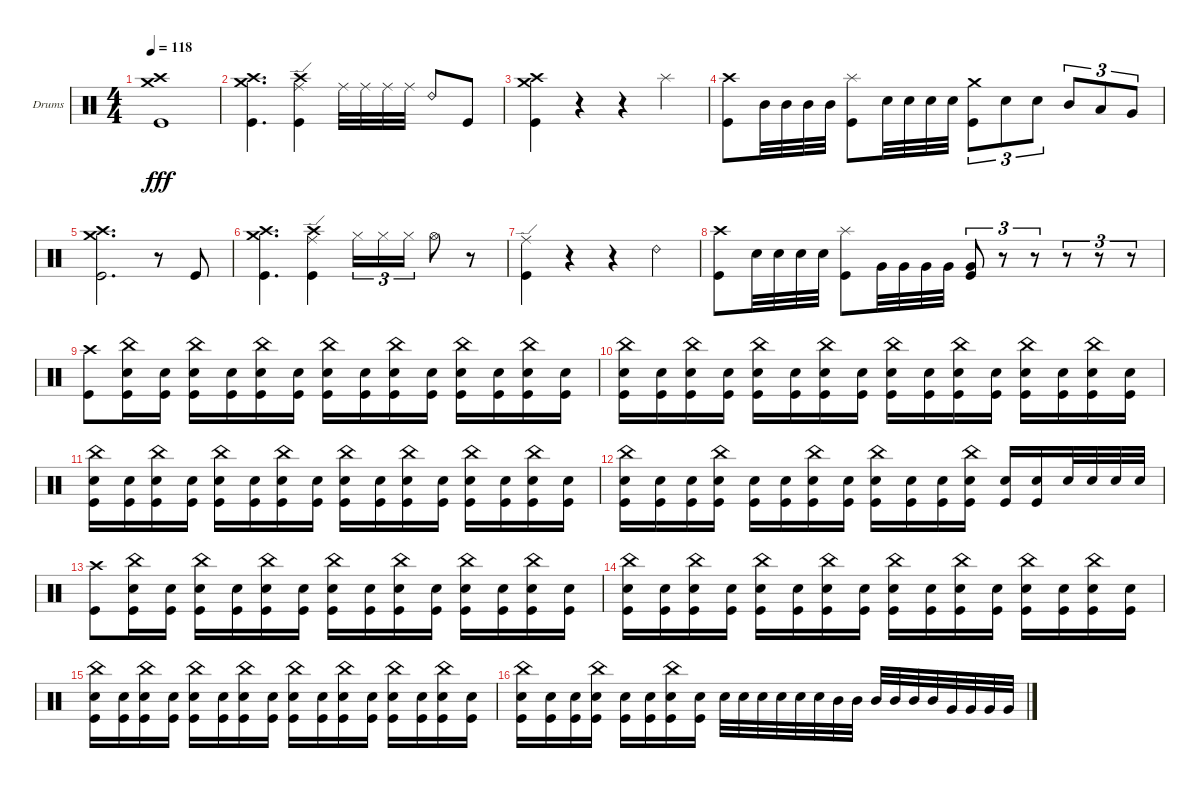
\bracketExtendMode groupsimilarinstruments
\firstSystemTrackNameOrientation horizontal
\otherSystemsTrackNameOrientation horizontal
\track ("Drumkit" "Drums") {instrument percussion}
\staff {score}
\articulation defaults
\ts (4 4)
\tempo 118
\clef neutral
\ks c
("Kick (hit)" "Crash medium (hit)" "Crash high (hit)").1{dy fff} |
("Kick (hit)" "Crash medium (hit)" "Crash high (hit)").4{d} ("Kick (hit)" "Crash high (hit)" "Ride (edge)").4 "Ride (middle)".32 "Ride (middle)".32 "Ride (middle)".32 "Ride (middle)".32 "Ride (bell) 2".8 "Kick (hit)".8 |
("Kick (hit)" "Crash medium (hit)" "Crash high (hit)").4 r.4 r.4 "Splash (hit)".4 |
("Kick (hit)" "Crash high (hit)").8 "Mid Tom (hit)".32 "Mid Tom (hit)".32 "Mid Tom (hit)".32 "Mid Tom (hit)".32 ("Kick (hit)" "Splash (hit)").8 "Snare (hit) 2".32 "Snare (hit) 2".32 "Snare (hit) 2".32 "Snare (hit) 2".32 ("Kick (hit)" "Crash medium (hit)").8{tu (3 2)} "Snare (hit) 2".8{tu (3 2)} "Snare (hit) 2".8{tu (3 2)} "Mid Tom (hit)".8{tu (3 2)} "Low Tom (hit)".8{tu (3 2)} "Very Low Tom (hit)".8{tu (3 2)} |
("Kick (hit)" "Crash medium (hit)" "Crash high (hit)").2{d} r.8 "Kick (hit)".8 |
("Kick (hit)" "Crash medium (hit)" "Crash high (hit)").4{d} ("Kick (hit)" "Crash high (hit)" "Ride (edge)").4 "Hi-Hat (closed)".16{tu (3 2)} "Hi-Hat (closed)".16{tu (3 2)} "Hi-Hat (closed)".16{tu (3 2)} "Hi-Hat (open)".8 r.8 |
("Kick (hit)" "Ride (edge)").4 r.4 r.4 "Ride (bell) 2".4 |
("Kick (hit)" "Crash high (hit)").8 "Snare (hit) 2".32 "Snare (hit) 2".32 "Snare (hit) 2".32 "Snare (hit) 2".32 ("Kick (hit)" "Splash (hit)").8 "Very Low Tom (hit)".32 "Very Low Tom (hit)".32 "Very Low Tom (hit)".32 "Very Low Tom (hit)".32 ("Kick (hit)" "Very Low Tom (hit)").8{tu (3 2)} r.8{tu (3 2)} r.8{tu (3 2)} r.8{tu (3 2)} r.8{tu (3 2)} r.8{tu (3 2)} |
("Kick (hit)" "Crash high (hit)").8 ("Snare (hit) 2" "Kick (hit)" "China (hit)").16 ("Snare (hit) 2" "Kick (hit)").16 ("Snare (hit) 2" "Kick (hit)" "China (hit)").16 ("Snare (hit) 2" "Kick (hit)").16 ("Snare (hit) 2" "Kick (hit)" "China (hit)").16 ("Snare (hit) 2" "Kick (hit)").16 ("Snare (hit) 2" "Kick (hit)" "China (hit)").16 ("Snare (hit) 2" "Kick (hit)").16 ("Snare (hit) 2" "Kick (hit)" "China (hit)").16 ("Snare (hit) 2" "Kick (hit)").16 ("Snare (hit) 2" "Kick (hit)" "China (hit)").16 ("Snare (hit) 2" "Kick (hit)").16 ("Snare (hit) 2" "Kick (hit)" "China (hit)").16 ("Snare (hit) 2" "Kick (hit)").16 |
("Snare (hit) 2" "Kick (hit)" "China (hit)").16 ("Snare (hit) 2" "Kick (hit)").16 ("Snare (hit) 2" "Kick (hit)" "China (hit)").16 ("Snare (hit) 2" "Kick (hit)").16 ("Snare (hit) 2" "Kick (hit)" "China (hit)").16 ("Snare (hit) 2" "Kick (hit)").16 ("Snare (hit) 2" "Kick (hit)" "China (hit)").16 ("Snare (hit) 2" "Kick (hit)").16 ("Snare (hit) 2" "Kick (hit)" "China (hit)").16 ("Snare (hit) 2" "Kick (hit)").16 ("Snare (hit) 2" "Kick (hit)" "China (hit)").16 ("Snare (hit) 2" "Kick (hit)").16 ("Snare (hit) 2" "Kick (hit)" "China (hit)").16 ("Snare (hit) 2" "Kick (hit)").16 ("Snare (hit) 2" "Kick (hit)" "China (hit)").16 ("Snare (hit) 2" "Kick (hit)").16 |
("Snare (hit) 2" "Kick (hit)" "China (hit)").16 ("Snare (hit) 2" "Kick (hit)").16 ("Snare (hit) 2" "Kick (hit)" "China (hit)").16 ("Snare (hit) 2" "Kick (hit)").16 ("Snare (hit) 2" "Kick (hit)" "China (hit)").16 ("Snare (hit) 2" "Kick (hit)").16 ("Snare (hit) 2" "Kick (hit)" "China (hit)").16 ("Snare (hit) 2" "Kick (hit)").16 ("Snare (hit) 2" "Kick (hit)" "China (hit)").16 ("Snare (hit) 2" "Kick (hit)").16 ("Snare (hit) 2" "Kick (hit)" "China (hit)").16 ("Snare (hit) 2" "Kick (hit)").16 ("Snare (hit) 2" "Kick (hit)" "China (hit)").16 ("Snare (hit) 2" "Kick (hit)").16 ("Snare (hit) 2" "Kick (hit)" "China (hit)").16 ("Snare (hit) 2" "Kick (hit)").16 |
("Snare (hit) 2" "Kick (hit)" "China (hit)").16 ("Snare (hit) 2" "Kick (hit)").16 ("Snare (hit) 2" "Kick (hit)").16 ("Snare (hit) 2" "Kick (hit)" "China (hit)").16 ("Snare (hit) 2" "Kick (hit)").16 ("Snare (hit) 2" "Kick (hit)").16 ("Snare (hit) 2" "Kick (hit)" "China (hit)").16 ("Snare (hit) 2" "Kick (hit)").16 ("Snare (hit) 2" "Kick (hit)" "China (hit)").16 ("Snare (hit) 2" "Kick (hit)").16 ("Snare (hit) 2" "Kick (hit)").16 ("Snare (hit) 2" "Kick (hit)" "China (hit)").16 ("Snare (hit) 2" "Kick (hit)").16 ("Snare (hit) 2" "Kick (hit)").16 "Snare (hit) 2".32 "Snare (hit) 2".32 "Snare (hit) 2".32 "Snare (hit) 2".32 |
("Kick (hit)" "Crash high (hit)").8 ("Snare (hit) 2" "Kick (hit)" "China (hit)").16 ("Snare (hit) 2" "Kick (hit)").16 ("Snare (hit) 2" "Kick (hit)" "China (hit)").16 ("Snare (hit) 2" "Kick (hit)").16 ("Snare (hit) 2" "Kick (hit)" "China (hit)").16 ("Snare (hit) 2" "Kick (hit)").16 ("Snare (hit) 2" "Kick (hit)" "China (hit)").16 ("Snare (hit) 2" "Kick (hit)").16 ("Snare (hit) 2" "Kick (hit)" "China (hit)").16 ("Snare (hit) 2" "Kick (hit)").16 ("Snare (hit) 2" "Kick (hit)" "China (hit)").16 ("Snare (hit) 2" "Kick (hit)").16 ("Snare (hit) 2" "Kick (hit)" "China (hit)").16 ("Snare (hit) 2" "Kick (hit)").16 |
("Snare (hit) 2" "Kick (hit)" "China (hit)").16 ("Snare (hit) 2" "Kick (hit)").16 ("Snare (hit) 2" "Kick (hit)" "China (hit)").16 ("Snare (hit) 2" "Kick (hit)").16 ("Snare (hit) 2" "Kick (hit)" "China (hit)").16 ("Snare (hit) 2" "Kick (hit)").16 ("Snare (hit) 2" "Kick (hit)" "China (hit)").16 ("Snare (hit) 2" "Kick (hit)").16 ("Snare (hit) 2" "Kick (hit)" "China (hit)").16 ("Snare (hit) 2" "Kick (hit)").16 ("Snare (hit) 2" "Kick (hit)" "China (hit)").16 ("Snare (hit) 2" "Kick (hit)").16 ("Snare (hit) 2" "Kick (hit)" "China (hit)").16 ("Snare (hit) 2" "Kick (hit)").16 ("Snare (hit) 2" "Kick (hit)" "China (hit)").16 ("Snare (hit) 2" "Kick (hit)").16 |
("Snare (hit) 2" "Kick (hit)" "China (hit)").16 ("Snare (hit) 2" "Kick (hit)").16 ("Snare (hit) 2" "Kick (hit)" "China (hit)").16 ("Snare (hit) 2" "Kick (hit)").16 ("Snare (hit) 2" "Kick (hit)" "China (hit)").16 ("Snare (hit) 2" "Kick (hit)").16 ("Snare (hit) 2" "Kick (hit)" "China (hit)").16 ("Snare (hit) 2" "Kick (hit)").16 ("Snare (hit) 2" "Kick (hit)" "China (hit)").16 ("Snare (hit) 2" "Kick (hit)").16 ("Snare (hit) 2" "Kick (hit)" "China (hit)").16 ("Snare (hit) 2" "Kick (hit)").16 ("Snare (hit) 2" "Kick (hit)" "China (hit)").16 ("Snare (hit) 2" "Kick (hit)").16 ("Snare (hit) 2" "Kick (hit)" "China (hit)").16 ("Snare (hit) 2" "Kick (hit)").16 |
("Snare (hit) 2" "Kick (hit)" "China (hit)").16 ("Snare (hit) 2" "Kick (hit)").16 ("Snare (hit) 2" "Kick (hit)").16 ("Snare (hit) 2" "Kick (hit)" "China (hit)").16 ("Snare (hit) 2" "Kick (hit)").16 ("Snare (hit) 2" "Kick (hit)").16 ("Snare (hit) 2" "Kick (hit)" "China (hit)").16 ("Snare (hit) 2" "Kick (hit)").16 "Snare (hit) 2".32 "Snare (hit) 2".32 "Snare (hit) 2".32 "Snare (hit) 2".32 "Snare (hit) 2".32 "Snare (hit) 2".32 "Mid Tom (hit)".32 "Mid Tom (hit)".32 "Mid Tom (hit)".32 "Mid Tom (hit)".32 "Mid Tom (hit)".32 "Mid Tom (hit)".32 "Very Low Tom (hit)".32 "Very Low Tom (hit)".32 "Very Low Tom (hit)".32 "Very Low Tom (hit)".32
